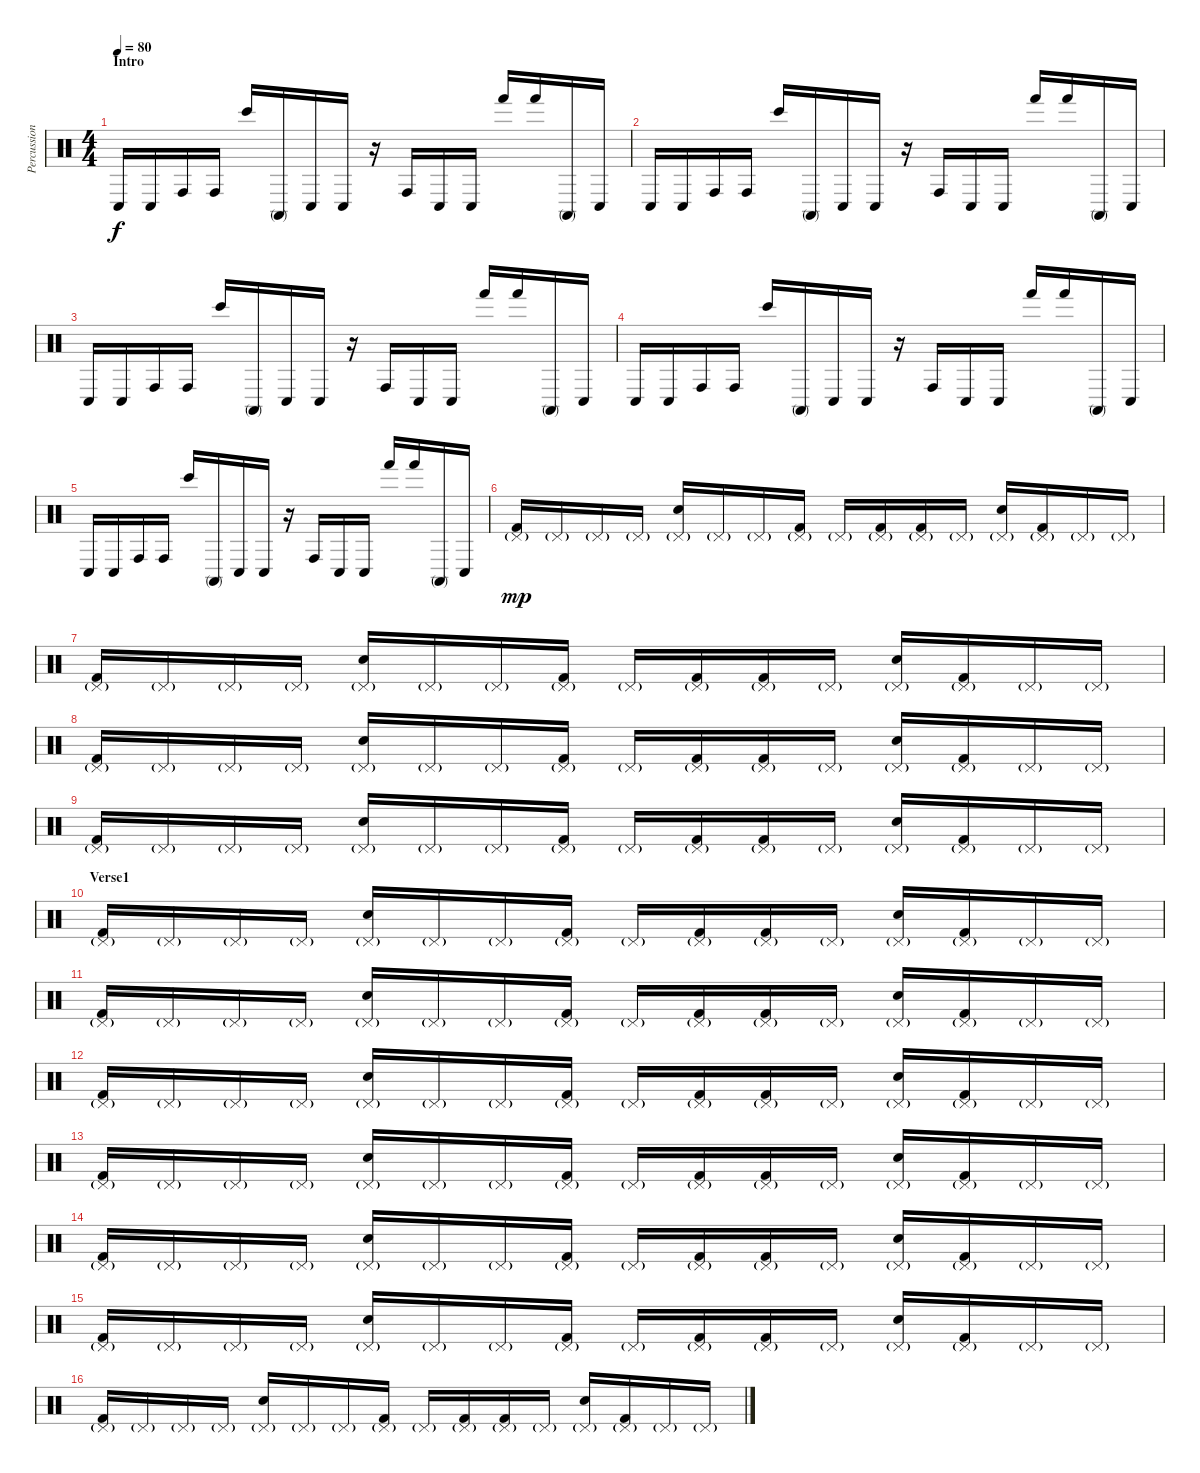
\track ("Percussion" "Percussion") {instrument percussion}
\staff {score}
\articulation defaults
\ts (4 4)
\section ("" "Intro")
\tempo 80
\clef neutral
\ks c "Conga low (hit)".16{dy f} "Conga low (hit)".16 "Conga high (hit)".16 "Conga high (hit)".16 "Bongo High (hit)".16 "Conga high (mute)".16 "Conga low (hit)".16 "Conga low (hit)".16
r.16 "Conga high (hit)".16 "Conga low (hit)".16 "Conga low (hit)".16 "Hand (hit)".16 "Hand (hit)".16 "Conga high (mute)".16 "Conga low (hit)".16 |
"Conga low (hit)".16 "Conga low (hit)".16 "Conga high (hit)".16 "Conga high (hit)".16 "Bongo High (hit)".16 "Conga high (mute)".16 "Conga low (hit)".16 "Conga low (hit)".16 r.16 "Conga high (hit)".16 "Conga low (hit)".16 "Conga low (hit)".16 "Hand (hit)".16 "Hand (hit)".16 "Conga high (mute)".16 "Conga low (hit)".16 |
"Conga low (hit)".16 "Conga low (hit)".16 "Conga high (hit)".16 "Conga high (hit)".16 "Bongo High (hit)".16 "Conga high (mute)".16 "Conga low (hit)".16 "Conga low (hit)".16 r.16 "Conga high (hit)".16 "Conga low (hit)".16 "Conga low (hit)".16 "Hand (hit)".16 "Hand (hit)".16 "Conga high (mute)".16 "Conga low (hit)".16 |
"Conga low (hit)".16 "Conga low (hit)".16 "Conga high (hit)".16 "Conga high (hit)".16 "Bongo High (hit)".16 "Conga high (mute)".16 "Conga low (hit)".16 "Conga low (hit)".16 r.16 "Conga high (hit)".16 "Conga low (hit)".16 "Conga low (hit)".16 "Hand (hit)".16 "Hand (hit)".16 "Conga high (mute)".16 "Conga low (hit)".16 |
"Conga low (hit)".16 "Conga low (hit)".16 "Conga high (hit)".16 "Conga high (hit)".16 "Bongo High (hit)".16 "Conga high (mute)".16 "Conga low (hit)".16 "Conga low (hit)".16 r.16 "Conga high (hit)".16 "Conga low (hit)".16 "Conga low (hit)".16 "Hand (hit)".16 "Hand (hit)".16 "Conga high (mute)".16 "Conga low (hit)".16 |
("Pedal Hi-Hat (hit)"{g} "Kick (hit) 2").16{dy mp} "Pedal Hi-Hat (hit)"{g}.16 "Pedal Hi-Hat (hit)"{g}.16 "Pedal Hi-Hat (hit)"{g}.16 ("Pedal Hi-Hat (hit)"{g} "Electric Snare (hit)").16 "Pedal Hi-Hat (hit)"{g}.16 "Pedal Hi-Hat (hit)"{g}.16 ("Pedal Hi-Hat (hit)"{g} "Kick (hit) 2").16 "Pedal Hi-Hat (hit)"{g}.16 ("Pedal Hi-Hat (hit)"{g} "Kick (hit) 2").16 ("Pedal Hi-Hat (hit)"{g} "Kick (hit) 2").16 "Pedal Hi-Hat (hit)"{g}.16 ("Pedal Hi-Hat (hit)"{g} "Electric Snare (hit)").16 ("Pedal Hi-Hat (hit)"{g} "Kick (hit) 2").16 "Pedal Hi-Hat (hit)"{g}.16 "Pedal Hi-Hat (hit)"{g}.16 |
("Pedal Hi-Hat (hit)"{g} "Kick (hit) 2").16 "Pedal Hi-Hat (hit)"{g}.16 "Pedal Hi-Hat (hit)"{g}.16 "Pedal Hi-Hat (hit)"{g}.16 ("Pedal Hi-Hat (hit)"{g} "Electric Snare (hit)").16 "Pedal Hi-Hat (hit)"{g}.16 "Pedal Hi-Hat (hit)"{g}.16 ("Pedal Hi-Hat (hit)"{g} "Kick (hit) 2").16 "Pedal Hi-Hat (hit)"{g}.16 ("Pedal Hi-Hat (hit)"{g} "Kick (hit) 2").16 ("Pedal Hi-Hat (hit)"{g} "Kick (hit) 2").16 "Pedal Hi-Hat (hit)"{g}.16 ("Pedal Hi-Hat (hit)"{g} "Electric Snare (hit)").16 ("Pedal Hi-Hat (hit)"{g} "Kick (hit) 2").16 "Pedal Hi-Hat (hit)"{g}.16 "Pedal Hi-Hat (hit)"{g}.16 |
("Pedal Hi-Hat (hit)"{g} "Kick (hit) 2").16 "Pedal Hi-Hat (hit)"{g}.16 "Pedal Hi-Hat (hit)"{g}.16 "Pedal Hi-Hat (hit)"{g}.16 ("Pedal Hi-Hat (hit)"{g} "Electric Snare (hit)").16 "Pedal Hi-Hat (hit)"{g}.16 "Pedal Hi-Hat (hit)"{g}.16 ("Pedal Hi-Hat (hit)"{g} "Kick (hit) 2").16 "Pedal Hi-Hat (hit)"{g}.16 ("Pedal Hi-Hat (hit)"{g} "Kick (hit) 2").16 ("Pedal Hi-Hat (hit)"{g} "Kick (hit) 2").16 "Pedal Hi-Hat (hit)"{g}.16 ("Pedal Hi-Hat (hit)"{g} "Electric Snare (hit)").16 ("Pedal Hi-Hat (hit)"{g} "Kick (hit) 2").16 "Pedal Hi-Hat (hit)"{g}.16 "Pedal Hi-Hat (hit)"{g}.16 |
("Pedal Hi-Hat (hit)"{g} "Kick (hit) 2").16 "Pedal Hi-Hat (hit)"{g}.16 "Pedal Hi-Hat (hit)"{g}.16 "Pedal Hi-Hat (hit)"{g}.16 ("Pedal Hi-Hat (hit)"{g} "Electric Snare (hit)").16 "Pedal Hi-Hat (hit)"{g}.16 "Pedal Hi-Hat (hit)"{g}.16 ("Pedal Hi-Hat (hit)"{g} "Kick (hit) 2").16 "Pedal Hi-Hat (hit)"{g}.16 ("Pedal Hi-Hat (hit)"{g} "Kick (hit) 2").16 ("Pedal Hi-Hat (hit)"{g} "Kick (hit) 2").16 "Pedal Hi-Hat (hit)"{g}.16 ("Pedal Hi-Hat (hit)"{g} "Electric Snare (hit)").16 ("Pedal Hi-Hat (hit)"{g} "Kick (hit) 2").16 "Pedal Hi-Hat (hit)"{g}.16 "Pedal Hi-Hat (hit)"{g}.16 |
\section ("" "Verse1")
("Pedal Hi-Hat (hit)"{g} "Kick (hit) 2").16 "Pedal Hi-Hat (hit)"{g}.16 "Pedal Hi-Hat (hit)"{g}.16 "Pedal Hi-Hat (hit)"{g}.16 ("Pedal Hi-Hat (hit)"{g} "Electric Snare (hit)").16 "Pedal Hi-Hat (hit)"{g}.16 "Pedal Hi-Hat (hit)"{g}.16 ("Pedal Hi-Hat (hit)"{g} "Kick (hit) 2").16 "Pedal Hi-Hat (hit)"{g}.16 ("Pedal Hi-Hat (hit)"{g} "Kick (hit) 2").16 ("Pedal Hi-Hat (hit)"{g} "Kick (hit) 2").16 "Pedal Hi-Hat (hit)"{g}.16 ("Pedal Hi-Hat (hit)"{g} "Electric Snare (hit)").16 ("Pedal Hi-Hat (hit)"{g} "Kick (hit) 2").16 "Pedal Hi-Hat (hit)"{g}.16 "Pedal Hi-Hat (hit)"{g}.16 |
("Pedal Hi-Hat (hit)"{g} "Kick (hit) 2").16 "Pedal Hi-Hat (hit)"{g}.16 "Pedal Hi-Hat (hit)"{g}.16 "Pedal Hi-Hat (hit)"{g}.16 ("Pedal Hi-Hat (hit)"{g} "Electric Snare (hit)").16 "Pedal Hi-Hat (hit)"{g}.16 "Pedal Hi-Hat (hit)"{g}.16 ("Pedal Hi-Hat (hit)"{g} "Kick (hit) 2").16 "Pedal Hi-Hat (hit)"{g}.16 ("Pedal Hi-Hat (hit)"{g} "Kick (hit) 2").16 ("Pedal Hi-Hat (hit)"{g} "Kick (hit) 2").16 "Pedal Hi-Hat (hit)"{g}.16 ("Pedal Hi-Hat (hit)"{g} "Electric Snare (hit)").16 ("Pedal Hi-Hat (hit)"{g} "Kick (hit) 2").16 "Pedal Hi-Hat (hit)"{g}.16 "Pedal Hi-Hat (hit)"{g}.16 |
("Pedal Hi-Hat (hit)"{g} "Kick (hit) 2").16 "Pedal Hi-Hat (hit)"{g}.16 "Pedal Hi-Hat (hit)"{g}.16 "Pedal Hi-Hat (hit)"{g}.16 ("Pedal Hi-Hat (hit)"{g} "Electric Snare (hit)").16 "Pedal Hi-Hat (hit)"{g}.16 "Pedal Hi-Hat (hit)"{g}.16 ("Pedal Hi-Hat (hit)"{g} "Kick (hit) 2").16 "Pedal Hi-Hat (hit)"{g}.16 ("Pedal Hi-Hat (hit)"{g} "Kick (hit) 2").16 ("Pedal Hi-Hat (hit)"{g} "Kick (hit) 2").16 "Pedal Hi-Hat (hit)"{g}.16 ("Pedal Hi-Hat (hit)"{g} "Electric Snare (hit)").16 ("Pedal Hi-Hat (hit)"{g} "Kick (hit) 2").16 "Pedal Hi-Hat (hit)"{g}.16 "Pedal Hi-Hat (hit)"{g}.16 |
("Pedal Hi-Hat (hit)"{g} "Kick (hit) 2").16 "Pedal Hi-Hat (hit)"{g}.16 "Pedal Hi-Hat (hit)"{g}.16 "Pedal Hi-Hat (hit)"{g}.16 ("Pedal Hi-Hat (hit)"{g} "Electric Snare (hit)").16 "Pedal Hi-Hat (hit)"{g}.16 "Pedal Hi-Hat (hit)"{g}.16 ("Pedal Hi-Hat (hit)"{g} "Kick (hit) 2").16 "Pedal Hi-Hat (hit)"{g}.16 ("Pedal Hi-Hat (hit)"{g} "Kick (hit) 2").16 ("Pedal Hi-Hat (hit)"{g} "Kick (hit) 2").16 "Pedal Hi-Hat (hit)"{g}.16 ("Pedal Hi-Hat (hit)"{g} "Electric Snare (hit)").16 ("Pedal Hi-Hat (hit)"{g} "Kick (hit) 2").16 "Pedal Hi-Hat (hit)"{g}.16 "Pedal Hi-Hat (hit)"{g}.16 |
("Pedal Hi-Hat (hit)"{g} "Kick (hit) 2").16 "Pedal Hi-Hat (hit)"{g}.16 "Pedal Hi-Hat (hit)"{g}.16 "Pedal Hi-Hat (hit)"{g}.16 ("Pedal Hi-Hat (hit)"{g} "Electric Snare (hit)").16 "Pedal Hi-Hat (hit)"{g}.16 "Pedal Hi-Hat (hit)"{g}.16 ("Pedal Hi-Hat (hit)"{g} "Kick (hit) 2").16 "Pedal Hi-Hat (hit)"{g}.16 ("Pedal Hi-Hat (hit)"{g} "Kick (hit) 2").16 ("Pedal Hi-Hat (hit)"{g} "Kick (hit) 2").16 "Pedal Hi-Hat (hit)"{g}.16 ("Pedal Hi-Hat (hit)"{g} "Electric Snare (hit)").16 ("Pedal Hi-Hat (hit)"{g} "Kick (hit) 2").16 "Pedal Hi-Hat (hit)"{g}.16 "Pedal Hi-Hat (hit)"{g}.16 |
("Pedal Hi-Hat (hit)"{g} "Kick (hit) 2").16 "Pedal Hi-Hat (hit)"{g}.16 "Pedal Hi-Hat (hit)"{g}.16 "Pedal Hi-Hat (hit)"{g}.16 ("Pedal Hi-Hat (hit)"{g} "Electric Snare (hit)").16 "Pedal Hi-Hat (hit)"{g}.16 "Pedal Hi-Hat (hit)"{g}.16 ("Pedal Hi-Hat (hit)"{g} "Kick (hit) 2").16 "Pedal Hi-Hat (hit)"{g}.16 ("Pedal Hi-Hat (hit)"{g} "Kick (hit) 2").16 ("Pedal Hi-Hat (hit)"{g} "Kick (hit) 2").16 "Pedal Hi-Hat (hit)"{g}.16 ("Pedal Hi-Hat (hit)"{g} "Electric Snare (hit)").16 ("Pedal Hi-Hat (hit)"{g} "Kick (hit) 2").16 "Pedal Hi-Hat (hit)"{g}.16 "Pedal Hi-Hat (hit)"{g}.16 |
("Pedal Hi-Hat (hit)"{g} "Kick (hit) 2").16 "Pedal Hi-Hat (hit)"{g}.16 "Pedal Hi-Hat (hit)"{g}.16 "Pedal Hi-Hat (hit)"{g}.16 ("Pedal Hi-Hat (hit)"{g} "Electric Snare (hit)").16 "Pedal Hi-Hat (hit)"{g}.16 "Pedal Hi-Hat (hit)"{g}.16 ("Pedal Hi-Hat (hit)"{g} "Kick (hit) 2").16 "Pedal Hi-Hat (hit)"{g}.16 ("Pedal Hi-Hat (hit)"{g} "Kick (hit) 2").16 ("Pedal Hi-Hat (hit)"{g} "Kick (hit) 2").16 "Pedal Hi-Hat (hit)"{g}.16 ("Pedal Hi-Hat (hit)"{g} "Electric Snare (hit)").16 ("Pedal Hi-Hat (hit)"{g} "Kick (hit) 2").16 "Pedal Hi-Hat (hit)"{g}.16 "Pedal Hi-Hat (hit)"{g}.16
